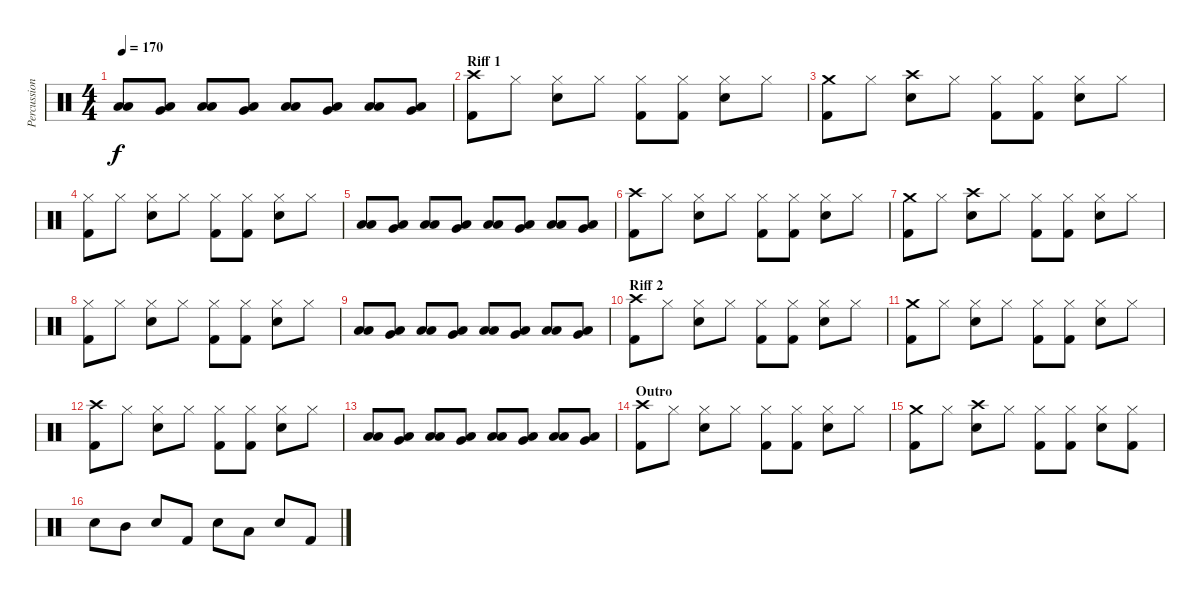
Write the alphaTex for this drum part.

\track ("Percussion" "Percussion") {instrument percussion}
\staff {score}
\articulation defaults
\ts (4 4)
\tempo 170
\clef neutral
\ks c
("Low Tom (hit)" "Low Floor Tom (hit)").8{dy f} ("Very Low Tom (hit)" "Low Floor Tom (hit)").8 ("Low Tom (hit)" "Low Floor Tom (hit)").8 ("Very Low Tom (hit)" "Low Floor Tom (hit)").8 ("Low Tom (hit)" "Low Floor Tom (hit)").8 ("Very Low Tom (hit)" "Low Floor Tom (hit)").8 ("Low Tom (hit)" "Low Floor Tom (hit)").8 ("Very Low Tom (hit)" "Low Floor Tom (hit)").8 |
\section ("" "Riff 1")
("Crash high (hit)" "Kick (hit) 2").8 "Hi-Hat (closed)".8 ("Hi-Hat (closed)" "Snare (hit) 2").8 "Hi-Hat (closed)".8 ("Hi-Hat (closed)" "Kick (hit) 2").8 ("Hi-Hat (closed)" "Kick (hit) 2").8 ("Hi-Hat (closed)" "Snare (hit) 2").8 "Hi-Hat (closed)".8 |
("Crash medium (hit)" "Kick (hit) 2").8 "Hi-Hat (closed)".8 ("Crash high (hit)" "Snare (hit) 2").8 "Hi-Hat (closed)".8 ("Hi-Hat (closed)" "Kick (hit) 2").8 ("Hi-Hat (closed)" "Kick (hit) 2").8 ("Hi-Hat (closed)" "Snare (hit) 2").8 "Hi-Hat (closed)".8 |
("Hi-Hat (closed)" "Kick (hit) 2").8 "Hi-Hat (closed)".8 ("Hi-Hat (closed)" "Snare (hit) 2").8 "Hi-Hat (closed)".8 ("Hi-Hat (closed)" "Kick (hit) 2").8 ("Hi-Hat (closed)" "Kick (hit) 2").8 ("Hi-Hat (closed)" "Snare (hit) 2").8 "Hi-Hat (closed)".8 |
("Low Tom (hit)" "Low Floor Tom (hit)").8 ("Very Low Tom (hit)" "Low Floor Tom (hit)").8 ("Low Tom (hit)" "Low Floor Tom (hit)").8 ("Very Low Tom (hit)" "Low Floor Tom (hit)").8 ("Low Tom (hit)" "Low Floor Tom (hit)").8 ("Very Low Tom (hit)" "Low Floor Tom (hit)").8 ("Low Tom (hit)" "Low Floor Tom (hit)").8 ("Very Low Tom (hit)" "Low Floor Tom (hit)").8 |
("Crash high (hit)" "Kick (hit) 2").8 "Hi-Hat (closed)".8 ("Hi-Hat (closed)" "Snare (hit) 2").8 "Hi-Hat (closed)".8 ("Hi-Hat (closed)" "Kick (hit) 2").8 ("Hi-Hat (closed)" "Kick (hit) 2").8 ("Hi-Hat (closed)" "Snare (hit) 2").8 "Hi-Hat (closed)".8 |
("Crash medium (hit)" "Kick (hit) 2").8 "Hi-Hat (closed)".8 ("Crash high (hit)" "Snare (hit) 2").8 "Hi-Hat (closed)".8 ("Hi-Hat (closed)" "Kick (hit) 2").8 ("Hi-Hat (closed)" "Kick (hit) 2").8 ("Hi-Hat (closed)" "Snare (hit) 2").8 "Hi-Hat (closed)".8 |
("Hi-Hat (closed)" "Kick (hit) 2").8 "Hi-Hat (closed)".8 ("Hi-Hat (closed)" "Snare (hit) 2").8 "Hi-Hat (closed)".8 ("Hi-Hat (closed)" "Kick (hit) 2").8 ("Hi-Hat (closed)" "Kick (hit) 2").8 ("Hi-Hat (closed)" "Snare (hit) 2").8 "Hi-Hat (closed)".8 |
("Low Tom (hit)" "Low Floor Tom (hit)").8 ("Very Low Tom (hit)" "Low Floor Tom (hit)").8 ("Low Tom (hit)" "Low Floor Tom (hit)").8 ("Very Low Tom (hit)" "Low Floor Tom (hit)").8 ("Low Tom (hit)" "Low Floor Tom (hit)").8 ("Very Low Tom (hit)" "Low Floor Tom (hit)").8 ("Low Tom (hit)" "Low Floor Tom (hit)").8 ("Very Low Tom (hit)" "Low Floor Tom (hit)").8 |
\section ("" "Riff 2")
("Crash high (hit)" "Kick (hit) 2").8 "Hi-Hat (closed)".8 ("Hi-Hat (closed)" "Snare (hit) 2").8 "Hi-Hat (closed)".8 ("Hi-Hat (closed)" "Kick (hit) 2").8 ("Hi-Hat (closed)" "Kick (hit) 2").8 ("Hi-Hat (closed)" "Snare (hit) 2").8 "Hi-Hat (closed)".8 |
("Crash medium (hit)" "Kick (hit) 2").8 "Hi-Hat (closed)".8 ("Hi-Hat (closed)" "Snare (hit) 2").8 "Hi-Hat (closed)".8 ("Hi-Hat (closed)" "Kick (hit) 2").8 ("Hi-Hat (closed)" "Kick (hit) 2").8 ("Hi-Hat (closed)" "Snare (hit) 2").8 "Hi-Hat (closed)".8 |
("Crash high (hit)" "Kick (hit) 2").8 "Hi-Hat (closed)".8 ("Hi-Hat (closed)" "Snare (hit) 2").8 "Hi-Hat (closed)".8 ("Hi-Hat (closed)" "Kick (hit) 2").8 ("Hi-Hat (closed)" "Kick (hit) 2").8 ("Hi-Hat (closed)" "Snare (hit) 2").8 "Hi-Hat (closed)".8 |
("Low Tom (hit)" "Low Floor Tom (hit)").8 ("Very Low Tom (hit)" "Low Floor Tom (hit)").8 ("Low Tom (hit)" "Low Floor Tom (hit)").8 ("Very Low Tom (hit)" "Low Floor Tom (hit)").8 ("Low Tom (hit)" "Low Floor Tom (hit)").8 ("Very Low Tom (hit)" "Low Floor Tom (hit)").8 ("Low Tom (hit)" "Low Floor Tom (hit)").8 ("Very Low Tom (hit)" "Low Floor Tom (hit)").8 |
\section ("" "Outro")
("Crash high (hit)" "Kick (hit) 2").8 "Hi-Hat (closed)".8 ("Hi-Hat (closed)" "Snare (hit) 2").8 "Hi-Hat (closed)".8 ("Hi-Hat (closed)" "Kick (hit) 2").8 ("Hi-Hat (closed)" "Kick (hit) 2").8 ("Hi-Hat (closed)" "Snare (hit) 2").8 "Hi-Hat (closed)".8 |
("Crash medium (hit)" "Kick (hit) 2").8 "Hi-Hat (closed)".8 ("Crash high (hit)" "Snare (hit) 2").8 "Hi-Hat (closed)".8 ("Hi-Hat (closed)" "Kick (hit) 2").8 ("Hi-Hat (closed)" "Kick (hit) 2").8 ("Hi-Hat (closed)" "Snare (hit) 2").8 ("Hi-Hat (closed)" "Kick (hit) 2").8 |
"Snare (hit) 2".8 "Mid Tom (hit)".8 "Snare (hit) 2".8 "Kick (hit) 2".8 "Snare (hit) 2".8 "Low Tom (hit)".8 "Snare (hit) 2".8 "Kick (hit) 2".8
